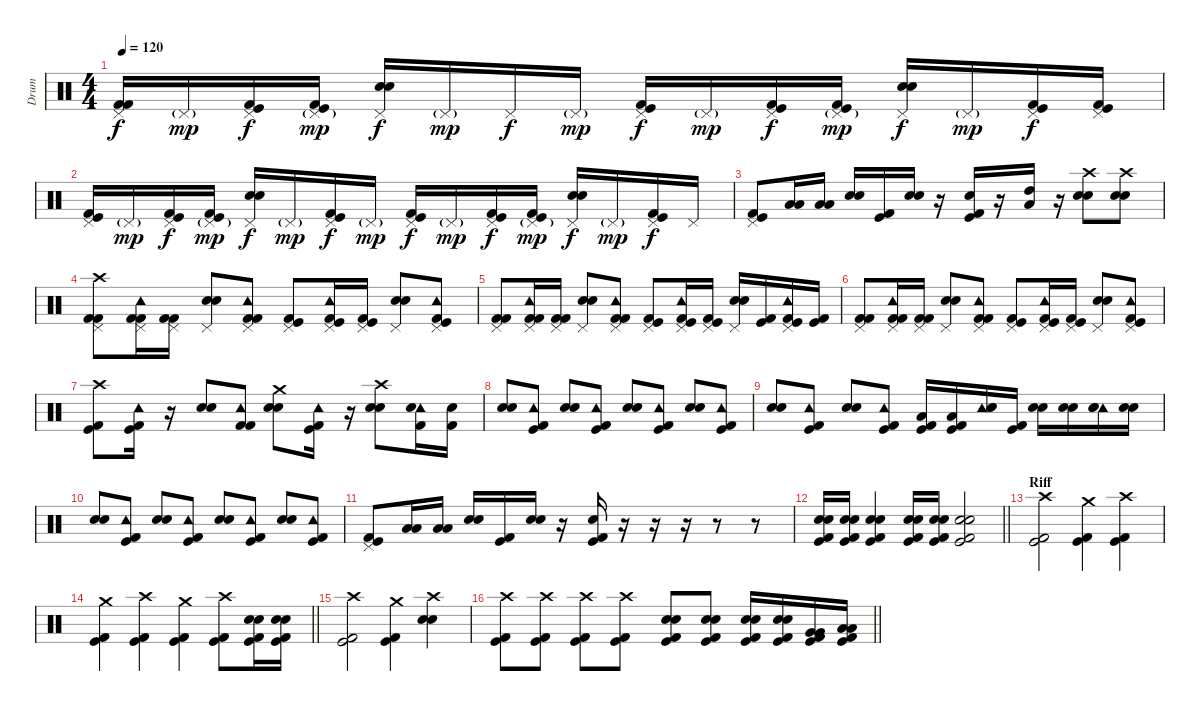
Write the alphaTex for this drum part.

\track ("Drum" "Drum") {instrument percussion}
\staff
\articulation defaults
\ts (4 4)
\tempo 120
\clef neutral
\ks c
("Pedal Hi-Hat (hit)" "Kick (hit) 2" "Kick (hit) 2").16{dy f} "Pedal Hi-Hat (hit)"{g}.16{dy mp} ("Pedal Hi-Hat (hit)" "Kick (hit) 2" "Kick (hit)").16{dy f} ("Pedal Hi-Hat (hit)"{g} "Kick (hit) 2" "Kick (hit)").16{dy mp} ("Pedal Hi-Hat (hit)" "Electric Snare (hit)" "Snare (hit) 2").16{dy f} "Pedal Hi-Hat (hit)"{g}.16{dy mp} "Pedal Hi-Hat (hit)".16{dy f} "Pedal Hi-Hat (hit)"{g}.16{dy mp} ("Pedal Hi-Hat (hit)" "Kick (hit) 2" "Kick (hit)").16{dy f} "Pedal Hi-Hat (hit)"{g}.16{dy mp} ("Pedal Hi-Hat (hit)" "Kick (hit) 2" "Kick (hit)").16{dy f} ("Pedal Hi-Hat (hit)"{g} "Kick (hit) 2" "Kick (hit)").16{dy mp} ("Pedal Hi-Hat (hit)" "Electric Snare (hit)" "Snare (hit) 2").16{dy f} "Pedal Hi-Hat (hit)"{g}.16{dy mp} ("Pedal Hi-Hat (hit)" "Kick (hit) 2" "Kick (hit)").16{dy f} ("Pedal Hi-Hat (hit)" "Kick (hit) 2" "Kick (hit)").16 |
("Pedal Hi-Hat (hit)" "Kick (hit) 2" "Kick (hit)").16 "Pedal Hi-Hat (hit)"{g}.16{dy mp} ("Pedal Hi-Hat (hit)" "Kick (hit) 2" "Kick (hit)").16{dy f} ("Pedal Hi-Hat (hit)"{g} "Kick (hit) 2" "Kick (hit)").16{dy mp} ("Pedal Hi-Hat (hit)" "Electric Snare (hit)" "Snare (hit) 2").16{dy f} "Pedal Hi-Hat (hit)"{g}.16{dy mp} ("Pedal Hi-Hat (hit)" "Kick (hit) 2" "Kick (hit)").16{dy f} "Pedal Hi-Hat (hit)"{g}.16{dy mp} ("Pedal Hi-Hat (hit)" "Kick (hit) 2" "Kick (hit)").16{dy f} "Pedal Hi-Hat (hit)"{g}.16{dy mp} ("Pedal Hi-Hat (hit)" "Kick (hit) 2" "Kick (hit)").16{dy f} ("Pedal Hi-Hat (hit)"{g} "Kick (hit) 2" "Kick (hit)").16{dy mp} ("Pedal Hi-Hat (hit)" "Electric Snare (hit)" "Snare (hit) 2").16{dy f} "Pedal Hi-Hat (hit)"{g}.16{dy mp} ("Pedal Hi-Hat (hit)" "Kick (hit) 2" "Kick (hit)").16{dy f} "Pedal Hi-Hat (hit)".16 |
("Pedal Hi-Hat (hit)" "Kick (hit) 2" "Kick (hit)").8 ("Low Floor Tom (hit)" "Low Floor Tom (hit)").16 ("Low Tom (hit)" "Low Tom (hit)").16 ("Snare (hit) 2" "Electric Snare (hit)").16 ("Kick (hit) 2" "Kick (hit)").16 ("Snare (hit) 2" "Electric Snare (hit)").16 r.16 ("Snare (hit) 2" "Kick (hit) 2" "Kick (hit)").16 r.16 ("High Tom (hit)" "Low Tom (hit)").16 r.16 ("Crash high (hit)" "Snare (hit) 2" "Electric Snare (hit)").8 ("Crash high (hit)" "Snare (hit) 2" "Electric Snare (hit)").8 |
("Crash high (hit)" "Pedal Hi-Hat (hit)" "Kick (hit) 2" "Kick (hit) 2").8 ("Tambourine (hit)" "Pedal Hi-Hat (hit)" "Kick (hit) 2" "Kick (hit) 2").16 ("Pedal Hi-Hat (hit)" "Kick (hit) 2" "Kick (hit) 2").16 ("Pedal Hi-Hat (hit)" "Electric Snare (hit)" "Snare (hit) 2").8 ("Tambourine (hit)" "Pedal Hi-Hat (hit)" "Kick (hit) 2" "Kick (hit) 2").8 ("Pedal Hi-Hat (hit)" "Kick (hit) 2" "Kick (hit)").8 ("Tambourine (hit)" "Pedal Hi-Hat (hit)" "Kick (hit) 2" "Kick (hit)").16 ("Pedal Hi-Hat (hit)" "Kick (hit) 2" "Kick (hit)").16 ("Pedal Hi-Hat (hit)" "Electric Snare (hit)" "Snare (hit) 2").8 ("Tambourine (hit)" "Pedal Hi-Hat (hit)" "Kick (hit) 2" "Kick (hit)").8 |
("Pedal Hi-Hat (hit)" "Kick (hit) 2" "Kick (hit) 2").8 ("Tambourine (hit)" "Pedal Hi-Hat (hit)" "Kick (hit) 2" "Kick (hit) 2").16 ("Pedal Hi-Hat (hit)" "Kick (hit) 2" "Kick (hit) 2").16 ("Pedal Hi-Hat (hit)" "Electric Snare (hit)" "Snare (hit) 2").8 ("Tambourine (hit)" "Pedal Hi-Hat (hit)" "Kick (hit) 2" "Kick (hit) 2").8 ("Pedal Hi-Hat (hit)" "Kick (hit) 2" "Kick (hit)").8 ("Tambourine (hit)" "Pedal Hi-Hat (hit)" "Kick (hit) 2" "Kick (hit)").16 ("Pedal Hi-Hat (hit)" "Kick (hit) 2" "Kick (hit)").16 ("Pedal Hi-Hat (hit)" "Electric Snare (hit)" "Snare (hit) 2").16 ("Kick (hit) 2" "Kick (hit)").16 ("Tambourine (hit)" "Pedal Hi-Hat (hit)" "Kick (hit) 2" "Kick (hit)").16 ("Kick (hit) 2" "Kick (hit)").16 |
("Pedal Hi-Hat (hit)" "Kick (hit) 2" "Kick (hit) 2").8 ("Tambourine (hit)" "Pedal Hi-Hat (hit)" "Kick (hit) 2" "Kick (hit) 2").16 ("Pedal Hi-Hat (hit)" "Kick (hit) 2" "Kick (hit) 2").16 ("Pedal Hi-Hat (hit)" "Electric Snare (hit)" "Snare (hit) 2").8 ("Tambourine (hit)" "Pedal Hi-Hat (hit)" "Kick (hit) 2" "Kick (hit) 2").8 ("Pedal Hi-Hat (hit)" "Kick (hit) 2" "Kick (hit)").8 ("Tambourine (hit)" "Pedal Hi-Hat (hit)" "Kick (hit) 2" "Kick (hit)").16 ("Pedal Hi-Hat (hit)" "Kick (hit) 2" "Kick (hit)").16 ("Pedal Hi-Hat (hit)" "Electric Snare (hit)" "Snare (hit) 2").8 ("Tambourine (hit)" "Pedal Hi-Hat (hit)" "Kick (hit) 2" "Kick (hit)").8 |
("Crash high (hit)" "Kick (hit) 2" "Kick (hit)").8 ("Tambourine (hit)" "Kick (hit) 2" "Kick (hit)").16 r.16 ("Electric Snare (hit)" "Snare (hit) 2").8 ("Tambourine (hit)" "Kick (hit) 2" "Kick (hit) 2").8 ("Crash medium (hit)" "Electric Snare (hit)" "Snare (hit) 2").8 ("Tambourine (hit)" "Kick (hit) 2" "Kick (hit)").16 r.16 ("Electric Snare (hit)" "Snare (hit) 2" "Crash high (hit)").8 ("Tambourine (hit)" "Electric Snare (hit)" "Kick (hit) 2").16 ("Electric Snare (hit)" "Kick (hit) 2").16 |
("Snare (hit) 2" "Electric Snare (hit)").8 ("Tambourine (hit)" "Kick (hit) 2" "Kick (hit)").8 ("Snare (hit) 2" "Electric Snare (hit)").8 ("Tambourine (hit)" "Kick (hit) 2" "Kick (hit)").8 ("Snare (hit) 2" "Electric Snare (hit)").8 ("Tambourine (hit)" "Kick (hit) 2" "Kick (hit)").8 ("Snare (hit) 2" "Electric Snare (hit)").8 ("Tambourine (hit)" "Kick (hit) 2" "Kick (hit)").8 |
("Snare (hit) 2" "Electric Snare (hit)").8 ("Tambourine (hit)" "Kick (hit) 2" "Kick (hit)").8 ("Snare (hit) 2" "Electric Snare (hit)").8 ("Tambourine (hit)" "Kick (hit) 2" "Kick (hit)").8 ("Low Floor Tom (hit)" "Kick (hit) 2" "Kick (hit)").16 ("Low Tom (hit)" "Kick (hit) 2" "Kick (hit)").16 ("Tambourine (hit)" "Snare (hit) 2" "Electric Snare (hit)").16 ("Kick (hit) 2" "Kick (hit)").16 ("Snare (hit) 2" "Electric Snare (hit)").16 ("Snare (hit) 2" "Electric Snare (hit)").16 ("Tambourine (hit)" "Snare (hit) 2" "Electric Snare (hit)").16 ("Snare (hit) 2" "Electric Snare (hit)").16 |
("Snare (hit) 2" "Electric Snare (hit)").8 ("Tambourine (hit)" "Kick (hit) 2" "Kick (hit)").8 ("Snare (hit) 2" "Electric Snare (hit)").8 ("Tambourine (hit)" "Kick (hit) 2" "Kick (hit)").8 ("Snare (hit) 2" "Electric Snare (hit)").8 ("Tambourine (hit)" "Kick (hit) 2" "Kick (hit)").8 ("Snare (hit) 2" "Electric Snare (hit)").8 ("Tambourine (hit)" "Kick (hit) 2" "Kick (hit)").8 |
("Pedal Hi-Hat (hit)" "Kick (hit) 2" "Kick (hit)").8 ("Low Floor Tom (hit)" "Low Floor Tom (hit)").16 ("Low Tom (hit)" "Low Tom (hit)").16 ("Snare (hit) 2" "Electric Snare (hit)").16 ("Kick (hit) 2" "Kick (hit)").16 ("Snare (hit) 2" "Electric Snare (hit)").16 r.16 ("Snare (hit) 2" "Kick (hit) 2" "Kick (hit)").16 r.16 r.16 r.16 r.8 r.8 |
\barLineRight lightlight
("Snare (hit) 2" "Electric Snare (hit)" "Kick (hit) 2" "Kick (hit)").16 ("Snare (hit) 2" "Electric Snare (hit)" "Kick (hit) 2" "Kick (hit)").16 ("Snare (hit) 2" "Electric Snare (hit)" "Kick (hit) 2" "Kick (hit)").4 ("Snare (hit) 2" "Electric Snare (hit)" "Kick (hit) 2" "Kick (hit)").16 ("Snare (hit) 2" "Electric Snare (hit)" "Kick (hit) 2" "Kick (hit)").16 ("Snare (hit) 2" "Electric Snare (hit)" "Kick (hit) 2" "Kick (hit)").2 |
\section ("" "Riff")
("Crash high (hit)" "Kick (hit)" "Kick (hit) 2").2 ("Crash medium (hit)" "Kick (hit)" "Kick (hit) 2").4 ("Crash high (hit)" "Kick (hit)" "Kick (hit) 2").4 |
\barLineRight lightlight
("Crash medium (hit)" "Kick (hit)" "Kick (hit) 2").4 ("Crash high (hit)" "Kick (hit)" "Kick (hit) 2").4 ("Crash medium (hit)" "Kick (hit)" "Kick (hit) 2").4 ("Crash high (hit)" "Kick (hit)" "Kick (hit) 2").8 ("Snare (hit) 2" "Electric Snare (hit)" "Kick (hit)" "Kick (hit) 2").16 ("Snare (hit) 2" "Electric Snare (hit)" "Kick (hit)" "Kick (hit) 2").16 |
("Crash high (hit)" "Kick (hit)" "Kick (hit) 2").2 ("Crash medium (hit)" "Kick (hit)" "Kick (hit) 2").4 ("Crash high (hit)" "Snare (hit) 2" "Electric Snare (hit)").4 |
\barLineRight lightlight
("Crash high (hit)" "Kick (hit)" "Kick (hit) 2").8 ("Crash high (hit)" "Kick (hit)" "Kick (hit) 2").8 ("Crash high (hit)" "Kick (hit)" "Kick (hit) 2").8 ("Crash high (hit)" "Kick (hit)" "Kick (hit) 2").8 ("Electric Snare (hit)" "Snare (hit) 2" "Kick (hit)" "Kick (hit) 2").8 ("Electric Snare (hit)" "Snare (hit) 2" "Kick (hit)" "Kick (hit) 2").8 ("Electric Snare (hit)" "Snare (hit) 2" "Kick (hit)" "Kick (hit) 2").16 ("Electric Snare (hit)" "Snare (hit) 2" "Kick (hit)" "Kick (hit) 2").16 ("Very Low Tom (hit)" "Very Low Tom (hit)" "Kick (hit)" "Kick (hit) 2").16 ("Low Floor Tom (hit)" "Low Floor Tom (hit)" "Kick (hit)" "Kick (hit) 2").16
